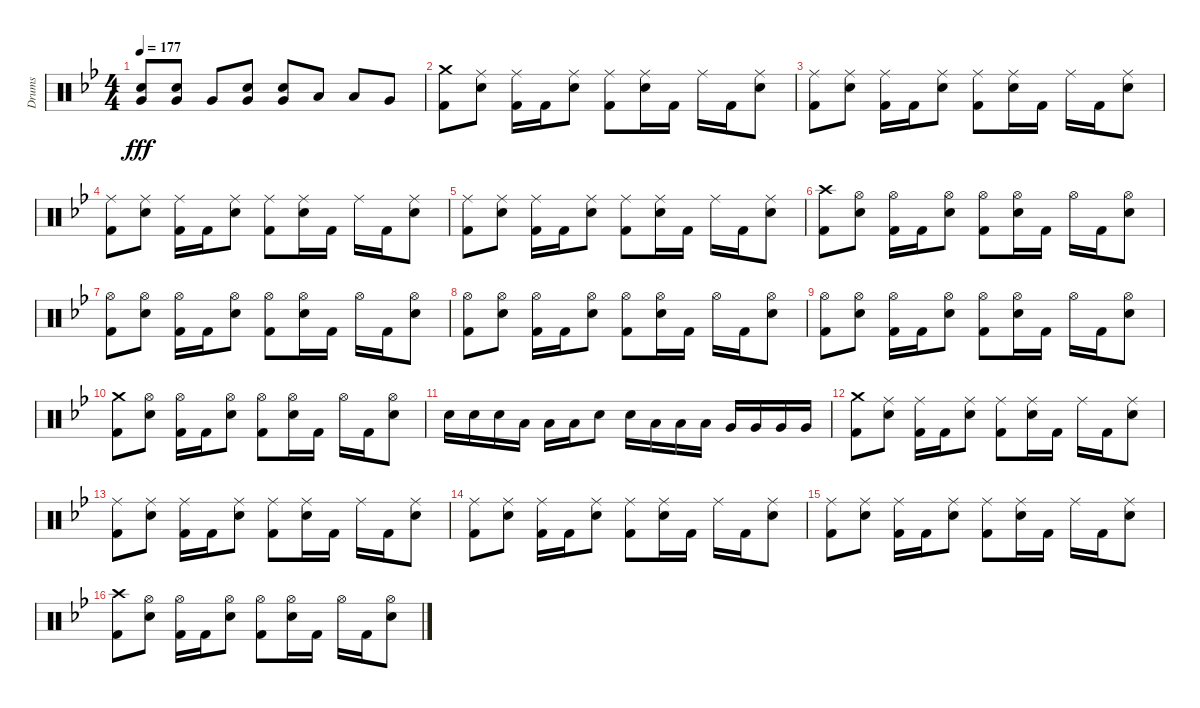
\track ("Drums" "Drums") {instrument percussion}
\staff {score}
\articulation defaults
\ts (4 4)
\tempo 177
\clef neutral
\ks bb
("Snare (hit) 2" "Very Low Tom (hit)").8{dy fff} ("Snare (hit) 2" "Very Low Tom (hit)").8 "Very Low Tom (hit)".8 ("Snare (hit) 2" "Very Low Tom (hit)").8 ("Snare (hit) 2" "Very Low Tom (hit)").8 "Low Tom (hit)".8 "Low Tom (hit)".8 "Very Low Tom (hit)".8 |
("Crash medium (hit)" "Kick (hit) 2").8 ("Ride (middle)" "Snare (hit) 2").8 ("Ride (middle)" "Kick (hit) 2").16 "Kick (hit) 2".16 ("Ride (middle)" "Snare (hit) 2").8 ("Ride (middle)" "Kick (hit) 2").8 ("Ride (middle)" "Snare (hit) 2").16 "Kick (hit) 2".16 "Ride (middle)".16 "Kick (hit) 2".16 ("Ride (middle)" "Snare (hit) 2").8 |
("Ride (middle)" "Kick (hit) 2").8 ("Ride (middle)" "Snare (hit) 2").8 ("Ride (middle)" "Kick (hit) 2").16 "Kick (hit) 2".16 ("Ride (middle)" "Snare (hit) 2").8 ("Ride (middle)" "Kick (hit) 2").8 ("Ride (middle)" "Snare (hit) 2").16 "Kick (hit) 2".16 "Ride (middle)".16 "Kick (hit) 2".16 ("Ride (middle)" "Snare (hit) 2").8 |
("Ride (middle)" "Kick (hit) 2").8 ("Ride (middle)" "Snare (hit) 2").8 ("Ride (middle)" "Kick (hit) 2").16 "Kick (hit) 2".16 ("Ride (middle)" "Snare (hit) 2").8 ("Ride (middle)" "Kick (hit) 2").8 ("Ride (middle)" "Snare (hit) 2").16 "Kick (hit) 2".16 "Ride (middle)".16 "Kick (hit) 2".16 ("Ride (middle)" "Snare (hit) 2").8 |
("Ride (middle)" "Kick (hit) 2").8 ("Ride (middle)" "Snare (hit) 2").8 ("Ride (middle)" "Kick (hit) 2").16 "Kick (hit) 2".16 ("Ride (middle)" "Snare (hit) 2").8 ("Ride (middle)" "Kick (hit) 2").8 ("Ride (middle)" "Snare (hit) 2").16 "Kick (hit) 2".16 "Ride (middle)".16 "Kick (hit) 2".16 ("Ride (middle)" "Snare (hit) 2").8 |
("Crash high (hit)" "Kick (hit) 2").8 ("Hi-Hat (open)" "Snare (hit) 2").8 ("Hi-Hat (open)" "Kick (hit) 2").16 "Kick (hit) 2".16 ("Hi-Hat (open)" "Snare (hit) 2").8 ("Hi-Hat (open)" "Kick (hit) 2").8 ("Hi-Hat (open)" "Snare (hit) 2").16 "Kick (hit) 2".16 "Hi-Hat (open)".16 "Kick (hit) 2".16 ("Hi-Hat (open)" "Snare (hit) 2").8 |
("Hi-Hat (open)" "Kick (hit) 2").8 ("Hi-Hat (open)" "Snare (hit) 2").8 ("Hi-Hat (open)" "Kick (hit) 2").16 "Kick (hit) 2".16 ("Hi-Hat (open)" "Snare (hit) 2").8 ("Hi-Hat (open)" "Kick (hit) 2").8 ("Hi-Hat (open)" "Snare (hit) 2").16 "Kick (hit) 2".16 "Hi-Hat (open)".16 "Kick (hit) 2".16 ("Hi-Hat (open)" "Snare (hit) 2").8 |
("Hi-Hat (open)" "Kick (hit) 2").8 ("Hi-Hat (open)" "Snare (hit) 2").8 ("Hi-Hat (open)" "Kick (hit) 2").16 "Kick (hit) 2".16 ("Hi-Hat (open)" "Snare (hit) 2").8 ("Hi-Hat (open)" "Kick (hit) 2").8 ("Hi-Hat (open)" "Snare (hit) 2").16 "Kick (hit) 2".16 "Hi-Hat (open)".16 "Kick (hit) 2".16 ("Hi-Hat (open)" "Snare (hit) 2").8 |
("Hi-Hat (open)" "Kick (hit) 2").8 ("Hi-Hat (open)" "Snare (hit) 2").8 ("Hi-Hat (open)" "Kick (hit) 2").16 "Kick (hit) 2".16 ("Hi-Hat (open)" "Snare (hit) 2").8 ("Hi-Hat (open)" "Kick (hit) 2").8 ("Hi-Hat (open)" "Snare (hit) 2").16 "Kick (hit) 2".16 "Hi-Hat (open)".16 "Kick (hit) 2".16 ("Hi-Hat (open)" "Snare (hit) 2").8 |
("Crash medium (hit)" "Kick (hit) 2").8 ("Hi-Hat (open)" "Snare (hit) 2").8 ("Hi-Hat (open)" "Kick (hit) 2").16 "Kick (hit) 2".16 ("Hi-Hat (open)" "Snare (hit) 2").8 ("Hi-Hat (open)" "Kick (hit) 2").8 ("Hi-Hat (open)" "Snare (hit) 2").16 "Kick (hit) 2".16 "Hi-Hat (open)".16 "Kick (hit) 2".16 ("Hi-Hat (open)" "Snare (hit) 2").8 |
"Snare (hit) 2".16 "Snare (hit) 2".16 "Snare (hit) 2".16 "Low Tom (hit)".16 "Low Tom (hit)".16 "Low Tom (hit)".16 "Snare (hit) 2".8 "Snare (hit) 2".16 "Low Tom (hit)".16 "Low Tom (hit)".16 "Low Tom (hit)".16 "Very Low Tom (hit)".16 "Very Low Tom (hit)".16 "Very Low Tom (hit)".16 "Very Low Tom (hit)".16 |
("Crash medium (hit)" "Kick (hit) 2").8 ("Ride (middle)" "Snare (hit) 2").8 ("Ride (middle)" "Kick (hit) 2").16 "Kick (hit) 2".16 ("Ride (middle)" "Snare (hit) 2").8 ("Ride (middle)" "Kick (hit) 2").8 ("Ride (middle)" "Snare (hit) 2").16 "Kick (hit) 2".16 "Ride (middle)".16 "Kick (hit) 2".16 ("Ride (middle)" "Snare (hit) 2").8 |
("Ride (middle)" "Kick (hit) 2").8 ("Ride (middle)" "Snare (hit) 2").8 ("Ride (middle)" "Kick (hit) 2").16 "Kick (hit) 2".16 ("Ride (middle)" "Snare (hit) 2").8 ("Ride (middle)" "Kick (hit) 2").8 ("Ride (middle)" "Snare (hit) 2").16 "Kick (hit) 2".16 "Ride (middle)".16 "Kick (hit) 2".16 ("Ride (middle)" "Snare (hit) 2").8 |
("Ride (middle)" "Kick (hit) 2").8 ("Ride (middle)" "Snare (hit) 2").8 ("Ride (middle)" "Kick (hit) 2").16 "Kick (hit) 2".16 ("Ride (middle)" "Snare (hit) 2").8 ("Ride (middle)" "Kick (hit) 2").8 ("Ride (middle)" "Snare (hit) 2").16 "Kick (hit) 2".16 "Ride (middle)".16 "Kick (hit) 2".16 ("Ride (middle)" "Snare (hit) 2").8 |
("Ride (middle)" "Kick (hit) 2").8 ("Ride (middle)" "Snare (hit) 2").8 ("Ride (middle)" "Kick (hit) 2").16 "Kick (hit) 2".16 ("Ride (middle)" "Snare (hit) 2").8 ("Ride (middle)" "Kick (hit) 2").8 ("Ride (middle)" "Snare (hit) 2").16 "Kick (hit) 2".16 "Ride (middle)".16 "Kick (hit) 2".16 ("Ride (middle)" "Snare (hit) 2").8 |
("Crash high (hit)" "Kick (hit) 2").8 ("Hi-Hat (open)" "Snare (hit) 2").8 ("Hi-Hat (open)" "Kick (hit) 2").16 "Kick (hit) 2".16 ("Hi-Hat (open)" "Snare (hit) 2").8 ("Hi-Hat (open)" "Kick (hit) 2").8 ("Hi-Hat (open)" "Snare (hit) 2").16 "Kick (hit) 2".16 "Hi-Hat (open)".16 "Kick (hit) 2".16 ("Hi-Hat (open)" "Snare (hit) 2").8
